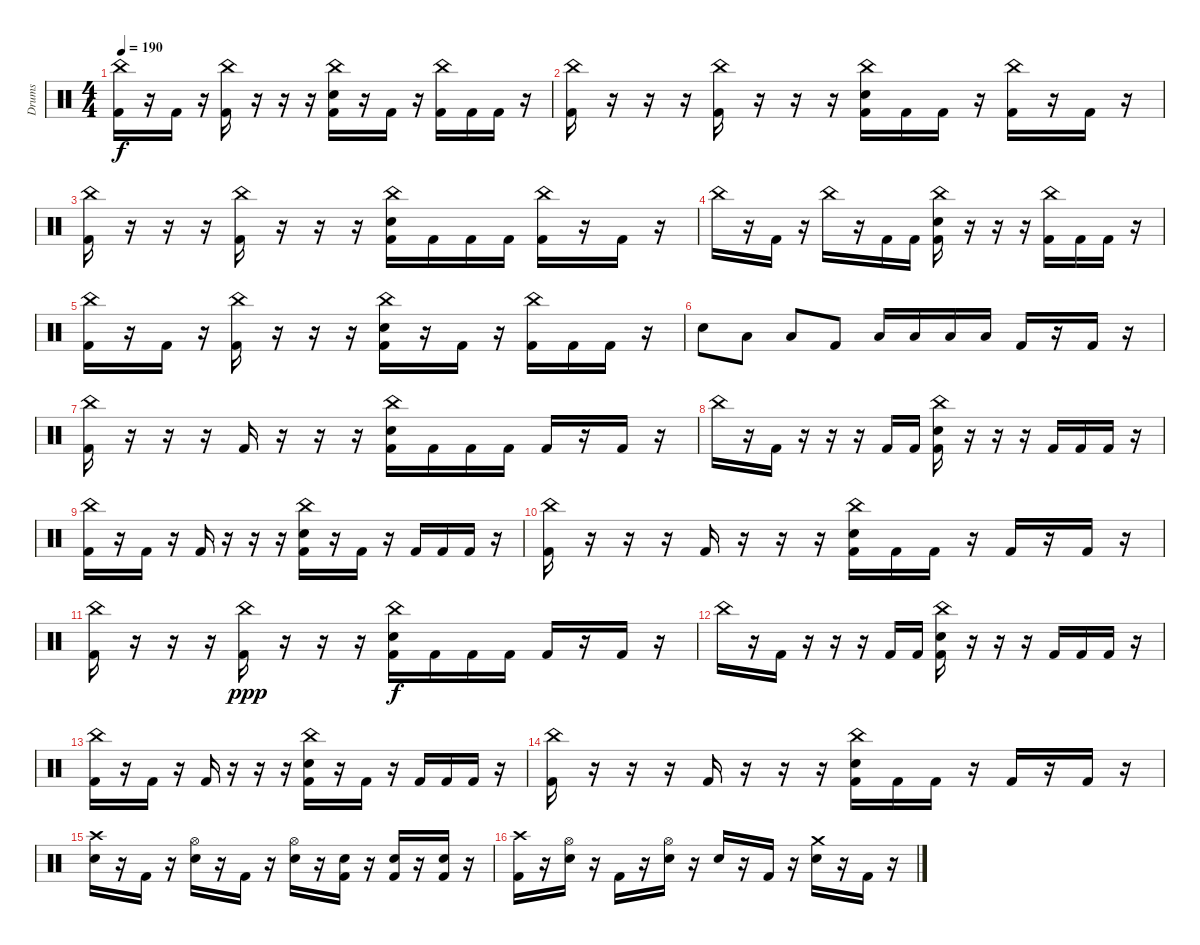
\track ("Drums" "Drums") {instrument percussion}
\staff {score}
\articulation defaults
\ts (4 4)
\tempo 190
\clef neutral
\ks c
("China (hit)" "Kick (hit) 2").16{dy f} r.16 "Kick (hit) 2".16 r.16 ("China (hit)" "Kick (hit) 2").16 r.16 r.16 r.16 ("China (hit)" "Electric Snare (hit)" "Kick (hit) 2").16 r.16 "Kick (hit) 2".16 r.16 ("China (hit)" "Kick (hit) 2").16 "Kick (hit) 2".16 "Kick (hit) 2".16 r.16 |
("China (hit)" "Kick (hit) 2").16 r.16 r.16 r.16 ("China (hit)" "Kick (hit) 2").16 r.16 r.16 r.16 ("China (hit)" "Electric Snare (hit)" "Kick (hit) 2").16 "Kick (hit) 2".16 "Kick (hit) 2".16 r.16 ("China (hit)" "Kick (hit) 2").16 r.16 "Kick (hit) 2".16 r.16 |
("China (hit)" "Kick (hit) 2").16 r.16 r.16 r.16 ("China (hit)" "Kick (hit) 2").16 r.16 r.16 r.16 ("China (hit)" "Electric Snare (hit)" "Kick (hit) 2").16 "Kick (hit) 2".16 "Kick (hit) 2".16 "Kick (hit) 2".16 ("China (hit)" "Kick (hit) 2").16 r.16 "Kick (hit) 2".16 r.16 |
"China (hit)".16 r.16 "Kick (hit) 2".16 r.16 "China (hit)".16 r.16 "Kick (hit) 2".16 "Kick (hit) 2".16 ("China (hit)" "Electric Snare (hit)" "Kick (hit) 2").16 r.16 r.16 r.16 ("China (hit)" "Kick (hit) 2").16 "Kick (hit) 2".16 "Kick (hit) 2".16 r.16 |
("China (hit)" "Kick (hit) 2").16 r.16 "Kick (hit) 2".16 r.16 ("China (hit)" "Kick (hit) 2").16 r.16 r.16 r.16 ("China (hit)" "Electric Snare (hit)" "Kick (hit) 2").16 r.16 "Kick (hit) 2".16 r.16 ("China (hit)" "Kick (hit) 2").16 "Kick (hit) 2".16 "Kick (hit) 2".16 r.16 |
"Electric Snare (hit)".8 "Low Tom (hit)".8 "Low Floor Tom (hit)".8 "Kick (hit) 2".8 "Low Tom (hit)".16 "Low Tom (hit)".16 "Low Tom (hit)".16 "Low Tom (hit)".16 "Kick (hit) 2".16 r.16 "Kick (hit) 2".16 r.16 |
("China (hit)" "Kick (hit) 2").16 r.16 r.16 r.16 "Kick (hit) 2".16 r.16 r.16 r.16 ("China (hit)" "Electric Snare (hit)" "Kick (hit) 2").16 "Kick (hit) 2".16 "Kick (hit) 2".16 "Kick (hit) 2".16 "Kick (hit) 2".16 r.16 "Kick (hit) 2".16 r.16 |
"China (hit)".16 r.16 "Kick (hit) 2".16 r.16 r.16 r.16 "Kick (hit) 2".16 "Kick (hit) 2".16 ("China (hit)" "Electric Snare (hit)" "Kick (hit) 2").16 r.16 r.16 r.16 "Kick (hit) 2".16 "Kick (hit) 2".16 "Kick (hit) 2".16 r.16 |
("China (hit)" "Kick (hit) 2").16 r.16 "Kick (hit) 2".16 r.16 "Kick (hit) 2".16 r.16 r.16 r.16 ("China (hit)" "Electric Snare (hit)" "Kick (hit) 2").16 r.16 "Kick (hit) 2".16 r.16 "Kick (hit) 2".16 "Kick (hit) 2".16 "Kick (hit) 2".16 r.16 |
("China (hit)" "Kick (hit) 2").16 r.16 r.16 r.16 "Kick (hit) 2".16 r.16 r.16 r.16 ("China (hit)" "Electric Snare (hit)" "Kick (hit) 2").16 "Kick (hit) 2".16 "Kick (hit) 2".16 r.16 "Kick (hit) 2".16 r.16 "Kick (hit) 2".16 r.16 |
("China (hit)" "Kick (hit) 2").16 r.16 r.16 r.16 ("China (hit)" "Kick (hit) 2").16{dy ppp} r.16 r.16 r.16 ("China (hit)" "Electric Snare (hit)" "Kick (hit) 2").16{dy f} "Kick (hit) 2".16 "Kick (hit) 2".16 "Kick (hit) 2".16 "Kick (hit) 2".16 r.16 "Kick (hit) 2".16 r.16 |
"China (hit)".16 r.16 "Kick (hit) 2".16 r.16 r.16 r.16 "Kick (hit) 2".16 "Kick (hit) 2".16 ("China (hit)" "Electric Snare (hit)" "Kick (hit) 2").16 r.16 r.16 r.16 "Kick (hit) 2".16 "Kick (hit) 2".16 "Kick (hit) 2".16 r.16 |
("China (hit)" "Kick (hit) 2").16 r.16 "Kick (hit) 2".16 r.16 "Kick (hit) 2".16 r.16 r.16 r.16 ("China (hit)" "Electric Snare (hit)" "Kick (hit) 2").16 r.16 "Kick (hit) 2".16 r.16 "Kick (hit) 2".16 "Kick (hit) 2".16 "Kick (hit) 2".16 r.16 |
("China (hit)" "Kick (hit) 2").16 r.16 r.16 r.16 "Kick (hit) 2".16 r.16 r.16 r.16 ("China (hit)" "Electric Snare (hit)" "Kick (hit) 2").16 "Kick (hit) 2".16 "Kick (hit) 2".16 r.16 "Kick (hit) 2".16 r.16 "Kick (hit) 2".16 r.16 |
("Crash high (hit)" "Electric Snare (hit)").16 r.16 "Kick (hit) 2".16 r.16 ("Hi-Hat (open)" "Electric Snare (hit)").16 r.16 "Kick (hit) 2".16 r.16 ("Hi-Hat (open)" "Electric Snare (hit)").16 r.16 ("Electric Snare (hit)" "Kick (hit) 2").16 r.16 ("Electric Snare (hit)" "Kick (hit) 2").16 r.16 ("Electric Snare (hit)" "Kick (hit) 2").16 r.16 |
("Crash high (hit)" "Kick (hit) 2").16 r.16 ("Hi-Hat (open)" "Electric Snare (hit)").16 r.16 "Kick (hit) 2".16 r.16 ("Hi-Hat (open)" "Electric Snare (hit)").16 r.16 "Electric Snare (hit)".16 r.16 "Kick (hit) 2".16 r.16 ("Crash medium (hit)" "Electric Snare (hit)").16 r.16 "Kick (hit) 2".16 r.16
